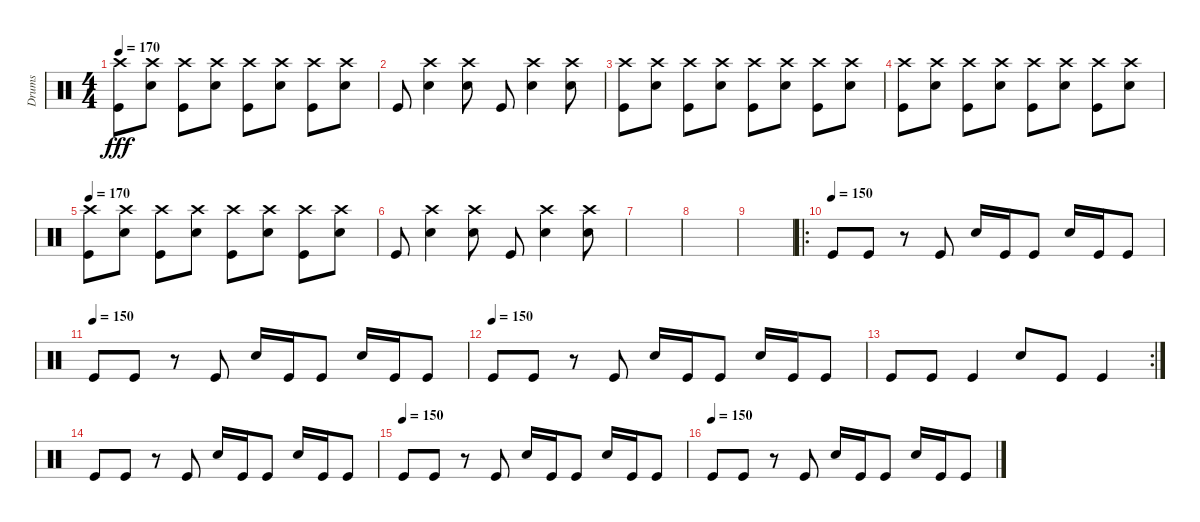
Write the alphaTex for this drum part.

\track ("Drums" "Drums") {instrument percussion}
\staff {score}
\articulation defaults
\ts (4 4)
\tempo 170
\clef neutral
\ks c
("Kick (hit)" "Crash high (hit)").8{dy fff} ("Snare (hit) 2" "Crash high (hit)").8 ("Kick (hit)" "Crash high (hit)").8 ("Snare (hit) 2" "Crash high (hit)").8 ("Kick (hit)" "Crash high (hit)").8 ("Snare (hit) 2" "Crash high (hit)").8 ("Kick (hit)" "Crash high (hit)").8 ("Snare (hit) 2" "Crash high (hit)").8 |
"Kick (hit)".8 ("Snare (hit) 2" "Crash high (hit)").4 ("Snare (hit) 2" "Crash high (hit)").8 "Kick (hit)".8 ("Snare (hit) 2" "Crash high (hit)").4 ("Snare (hit) 2" "Crash high (hit)").8 |
("Kick (hit)" "Crash high (hit)").8 ("Snare (hit) 2" "Crash high (hit)").8 ("Kick (hit)" "Crash high (hit)").8 ("Snare (hit) 2" "Crash high (hit)").8 ("Kick (hit)" "Crash high (hit)").8 ("Snare (hit) 2" "Crash high (hit)").8 ("Kick (hit)" "Crash high (hit)").8 ("Snare (hit) 2" "Crash high (hit)").8 |
("Kick (hit)" "Crash high (hit)").8 ("Snare (hit) 2" "Crash high (hit)").8 ("Kick (hit)" "Crash high (hit)").8 ("Snare (hit) 2" "Crash high (hit)").8 ("Kick (hit)" "Crash high (hit)").8 ("Snare (hit) 2" "Crash high (hit)").8 ("Kick (hit)" "Crash high (hit)").8 ("Snare (hit) 2" "Crash high (hit)").8 |
\tempo 170
("Kick (hit)" "Crash high (hit)").8 ("Snare (hit) 2" "Crash high (hit)").8 ("Kick (hit)" "Crash high (hit)").8 ("Snare (hit) 2" "Crash high (hit)").8 ("Kick (hit)" "Crash high (hit)").8 ("Snare (hit) 2" "Crash high (hit)").8 ("Kick (hit)" "Crash high (hit)").8 ("Snare (hit) 2" "Crash high (hit)").8 |
"Kick (hit)".8 ("Snare (hit) 2" "Crash high (hit)").4 ("Snare (hit) 2" "Crash high (hit)").8 "Kick (hit)".8 ("Snare (hit) 2" "Crash high (hit)").4 ("Snare (hit) 2" "Crash high (hit)").8 |
|
|
|
\ro
\tempo (150)
"Kick (hit)".8 "Kick (hit)".8 r.8 "Kick (hit)".8 "Snare (hit) 2".16 "Kick (hit)".16 "Kick (hit)".8 "Snare (hit) 2".16 "Kick (hit)".16 "Kick (hit)".8 |
\tempo (150)
"Kick (hit)".8 "Kick (hit)".8 r.8 "Kick (hit)".8 "Snare (hit) 2".16 "Kick (hit)".16 "Kick (hit)".8 "Snare (hit) 2".16 "Kick (hit)".16 "Kick (hit)".8 |
\tempo (150)
"Kick (hit)".8 "Kick (hit)".8 r.8 "Kick (hit)".8 "Snare (hit) 2".16 "Kick (hit)".16 "Kick (hit)".8 "Snare (hit) 2".16 "Kick (hit)".16 "Kick (hit)".8 |
\rc 2 "Kick (hit)".8 "Kick (hit)".8 "Kick (hit)".4 "Snare (hit) 2".8 "Kick (hit)".8 "Kick (hit)".4
|
"Kick (hit)".8 "Kick (hit)".8 r.8 "Kick (hit)".8 "Snare (hit) 2".16 "Kick (hit)".16 "Kick (hit)".8 "Snare (hit) 2".16 "Kick (hit)".16 "Kick (hit)".8 |
\tempo (150)
"Kick (hit)".8 "Kick (hit)".8 r.8 "Kick (hit)".8 "Snare (hit) 2".16 "Kick (hit)".16 "Kick (hit)".8 "Snare (hit) 2".16 "Kick (hit)".16 "Kick (hit)".8 |
\tempo (150)
"Kick (hit)".8 "Kick (hit)".8 r.8 "Kick (hit)".8 "Snare (hit) 2".16 "Kick (hit)".16 "Kick (hit)".8 "Snare (hit) 2".16 "Kick (hit)".16 "Kick (hit)".8
